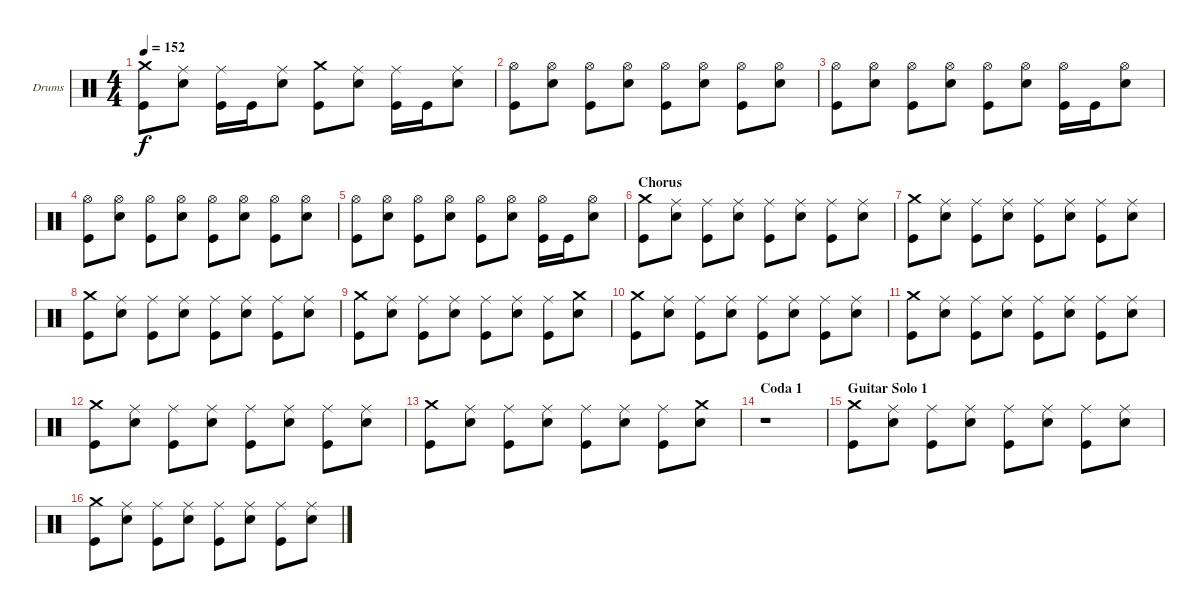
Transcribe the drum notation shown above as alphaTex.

\bracketExtendMode groupsimilarinstruments
\firstSystemTrackNameOrientation horizontal
\otherSystemsTrackNameOrientation horizontal
\track ("Drumkit" "Drums") {instrument percussion}
\staff {score}
\articulation defaults
\ts (4 4)
\tempo 152
\clef neutral
\ks c
("Crash medium (hit)" "Kick (hit)").8{dy f} ("Ride (middle)" "Snare (hit) 2").8 ("Ride (middle)" "Kick (hit)").16 "Kick (hit)".16 ("Ride (middle)" "Snare (hit) 2").8 ("Crash medium (hit)" "Kick (hit)").8 ("Ride (middle)" "Snare (hit) 2").8 ("Ride (middle)" "Kick (hit)").16 "Kick (hit)".16 ("Ride (middle)" "Snare (hit) 2").8 |
("Hi-Hat (open)" "Kick (hit)").8 ("Hi-Hat (open)" "Snare (hit) 2").8 ("Hi-Hat (open)" "Kick (hit)").8 ("Hi-Hat (open)" "Snare (hit) 2").8 ("Hi-Hat (open)" "Kick (hit)").8 ("Hi-Hat (open)" "Snare (hit) 2").8 ("Hi-Hat (open)" "Kick (hit)").8 ("Hi-Hat (open)" "Snare (hit) 2").8 |
("Hi-Hat (open)" "Kick (hit)").8 ("Hi-Hat (open)" "Snare (hit) 2").8 ("Hi-Hat (open)" "Kick (hit)").8 ("Hi-Hat (open)" "Snare (hit) 2").8 ("Hi-Hat (open)" "Kick (hit)").8 ("Hi-Hat (open)" "Snare (hit) 2").8 ("Hi-Hat (open)" "Kick (hit)").16 "Kick (hit)".16 ("Hi-Hat (open)" "Snare (hit) 2").8 |
("Hi-Hat (open)" "Kick (hit)").8 ("Hi-Hat (open)" "Snare (hit) 2").8 ("Hi-Hat (open)" "Kick (hit)").8 ("Hi-Hat (open)" "Snare (hit) 2").8 ("Hi-Hat (open)" "Kick (hit)").8 ("Hi-Hat (open)" "Snare (hit) 2").8 ("Hi-Hat (open)" "Kick (hit)").8 ("Hi-Hat (open)" "Snare (hit) 2").8 |
("Hi-Hat (open)" "Kick (hit)").8 ("Hi-Hat (open)" "Snare (hit) 2").8 ("Hi-Hat (open)" "Kick (hit)").8 ("Hi-Hat (open)" "Snare (hit) 2").8 ("Hi-Hat (open)" "Kick (hit)").8 ("Hi-Hat (open)" "Snare (hit) 2").8 ("Hi-Hat (open)" "Kick (hit)").16 "Kick (hit)".16 ("Hi-Hat (open)" "Snare (hit) 2").8 |
\section ("" "Chorus")
("Crash medium (hit)" "Kick (hit)").8 ("Ride (middle)" "Snare (hit) 2").8 ("Ride (middle)" "Kick (hit)").8 ("Ride (middle)" "Snare (hit) 2").8 ("Ride (middle)" "Kick (hit)").8 ("Ride (middle)" "Snare (hit) 2").8 ("Ride (middle)" "Kick (hit)").8 ("Ride (middle)" "Snare (hit) 2").8 |
("Crash medium (hit)" "Kick (hit)").8 ("Ride (middle)" "Snare (hit) 2").8 ("Ride (middle)" "Kick (hit)").8 ("Ride (middle)" "Snare (hit) 2").8 ("Ride (middle)" "Kick (hit)").8 ("Ride (middle)" "Snare (hit) 2").8 ("Ride (middle)" "Kick (hit)").8 ("Ride (middle)" "Snare (hit) 2").8 |
("Crash medium (hit)" "Kick (hit)").8 ("Ride (middle)" "Snare (hit) 2").8 ("Ride (middle)" "Kick (hit)").8 ("Ride (middle)" "Snare (hit) 2").8 ("Ride (middle)" "Kick (hit)").8 ("Ride (middle)" "Snare (hit) 2").8 ("Ride (middle)" "Kick (hit)").8 ("Ride (middle)" "Snare (hit) 2").8 |
("Crash medium (hit)" "Kick (hit)").8 ("Ride (middle)" "Snare (hit) 2").8 ("Ride (middle)" "Kick (hit)").8 ("Ride (middle)" "Snare (hit) 2").8 ("Ride (middle)" "Kick (hit)").8 ("Ride (middle)" "Snare (hit) 2").8 ("Ride (middle)" "Kick (hit)").8 ("Crash medium (hit)" "Snare (hit) 2").8 |
("Crash medium (hit)" "Kick (hit)").8 ("Ride (middle)" "Snare (hit) 2").8 ("Ride (middle)" "Kick (hit)").8 ("Ride (middle)" "Snare (hit) 2").8 ("Ride (middle)" "Kick (hit)").8 ("Ride (middle)" "Snare (hit) 2").8 ("Ride (middle)" "Kick (hit)").8 ("Ride (middle)" "Snare (hit) 2").8 |
("Crash medium (hit)" "Kick (hit)").8 ("Ride (middle)" "Snare (hit) 2").8 ("Ride (middle)" "Kick (hit)").8 ("Ride (middle)" "Snare (hit) 2").8 ("Ride (middle)" "Kick (hit)").8 ("Ride (middle)" "Snare (hit) 2").8 ("Ride (middle)" "Kick (hit)").8 ("Ride (middle)" "Snare (hit) 2").8 |
("Crash medium (hit)" "Kick (hit)").8 ("Ride (middle)" "Snare (hit) 2").8 ("Ride (middle)" "Kick (hit)").8 ("Ride (middle)" "Snare (hit) 2").8 ("Ride (middle)" "Kick (hit)").8 ("Ride (middle)" "Snare (hit) 2").8 ("Ride (middle)" "Kick (hit)").8 ("Ride (middle)" "Snare (hit) 2").8 |
("Crash medium (hit)" "Kick (hit)").8 ("Ride (middle)" "Snare (hit) 2").8 ("Ride (middle)" "Kick (hit)").8 ("Ride (middle)" "Snare (hit) 2").8 ("Ride (middle)" "Kick (hit)").8 ("Ride (middle)" "Snare (hit) 2").8 ("Ride (middle)" "Kick (hit)").8 ("Crash medium (hit)" "Snare (hit) 2").8 |
\section ("" "Coda 1")
r.1 |
\section ("" "Guitar Solo 1")
("Crash medium (hit)" "Kick (hit)").8 ("Ride (middle)" "Snare (hit) 2").8 ("Ride (middle)" "Kick (hit)").8 ("Ride (middle)" "Snare (hit) 2").8 ("Ride (middle)" "Kick (hit)").8 ("Ride (middle)" "Snare (hit) 2").8 ("Ride (middle)" "Kick (hit)").8 ("Ride (middle)" "Snare (hit) 2").8 |
("Crash medium (hit)" "Kick (hit)").8 ("Ride (middle)" "Snare (hit) 2").8 ("Ride (middle)" "Kick (hit)").8 ("Ride (middle)" "Snare (hit) 2").8 ("Ride (middle)" "Kick (hit)").8 ("Ride (middle)" "Snare (hit) 2").8 ("Ride (middle)" "Kick (hit)").8 ("Ride (middle)" "Snare (hit) 2").8
